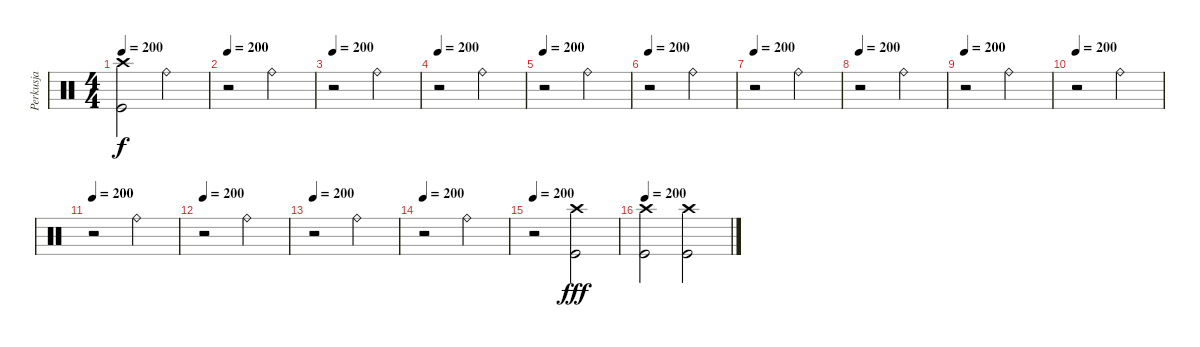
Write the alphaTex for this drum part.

\track ("Perkusja" "Perkusja") {instrument percussion}
\staff {score}
\articulation defaults
\ts (4 4)
\tempo 200
\clef neutral
\ks c
("Crash high (hit)" "Kick (hit)").2{dy f} "Ride (bell)".2 |
\tempo 200
r.2 "Ride (bell)".2 |
\tempo 200
r.2 "Ride (bell)".2 |
\tempo 200
r.2 "Ride (bell)".2 |
\tempo 200
r.2 "Ride (bell)".2 |
\tempo 200
r.2 "Ride (bell)".2 |
\tempo 200
r.2 "Ride (bell)".2 |
\tempo 200
r.2 "Ride (bell)".2 |
\tempo 200
r.2 "Ride (bell)".2 |
\tempo 200
r.2 "Ride (bell)".2 |
\tempo 200
r.2 "Ride (bell)".2 |
\tempo 200
r.2 "Ride (bell)".2 |
\tempo 200
r.2 "Ride (bell)".2 |
\tempo 200
r.2 "Ride (bell)".2 |
\tempo 200
r.2 ("Crash high (hit)" "Kick (hit)").2{dy fff} |
\tempo 200
("Crash high (hit)" "Kick (hit)").2 ("Crash high (hit)" "Kick (hit)").2
